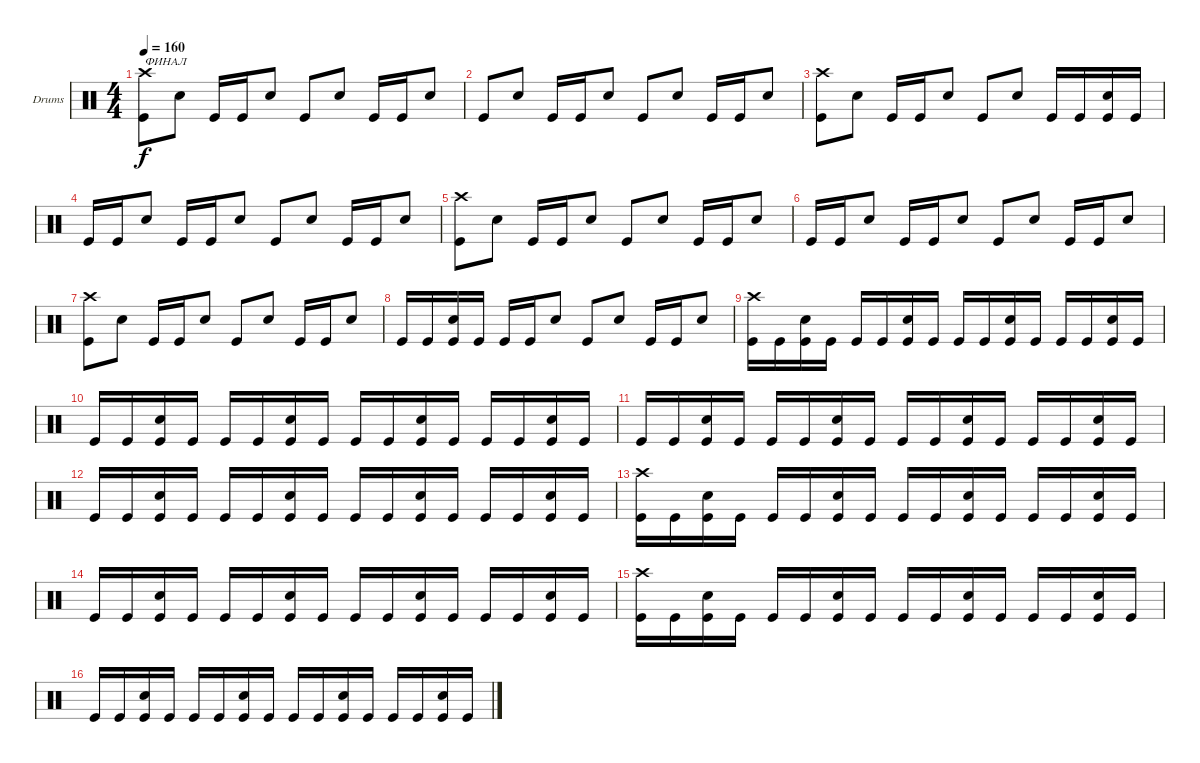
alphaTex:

\defaultSystemsLayout 4
\bracketExtendMode groupsimilarinstruments
\firstSystemTrackNameOrientation horizontal
\otherSystemsTrackNameOrientation horizontal
\track ("Drumkit" "Drums") {instrument percussion}
\staff {score}
\articulation defaults
\ts (4 4)
\tempo 160
\clef neutral
\ks c
("Kick (hit)" "Crash high (hit)").8{txt "ФИНАЛ" dy f} "Snare (hit) 2".8 "Kick (hit)".16 "Kick (hit)".16 "Snare (hit) 2".8 "Kick (hit)".8 "Snare (hit) 2".8 "Kick (hit)".16 "Kick (hit)".16 "Snare (hit) 2".8 |
"Kick (hit)".8 "Snare (hit) 2".8 "Kick (hit)".16 "Kick (hit)".16 "Snare (hit) 2".8 "Kick (hit)".8 "Snare (hit) 2".8 "Kick (hit)".16 "Kick (hit)".16 "Snare (hit) 2".8 |
("Kick (hit)" "Crash high (hit)").8 "Snare (hit) 2".8 "Kick (hit)".16 "Kick (hit)".16 "Snare (hit) 2".8 "Kick (hit)".8 "Snare (hit) 2".8 "Kick (hit)".16 "Kick (hit)".16 ("Snare (hit) 2" "Kick (hit)").16 "Kick (hit)".16 |
"Kick (hit)".16 "Kick (hit)".16 "Snare (hit) 2".8 "Kick (hit)".16 "Kick (hit)".16 "Snare (hit) 2".8 "Kick (hit)".8 "Snare (hit) 2".8 "Kick (hit)".16 "Kick (hit)".16 "Snare (hit) 2".8 |
("Kick (hit)" "Crash high (hit)").8 "Snare (hit) 2".8 "Kick (hit)".16 "Kick (hit)".16 "Snare (hit) 2".8 "Kick (hit)".8 "Snare (hit) 2".8 "Kick (hit)".16 "Kick (hit)".16 "Snare (hit) 2".8 |
"Kick (hit)".16 "Kick (hit)".16 "Snare (hit) 2".8 "Kick (hit)".16 "Kick (hit)".16 "Snare (hit) 2".8 "Kick (hit)".8 "Snare (hit) 2".8 "Kick (hit)".16 "Kick (hit)".16 "Snare (hit) 2".8 |
("Kick (hit)" "Crash high (hit)").8 "Snare (hit) 2".8 "Kick (hit)".16 "Kick (hit)".16 "Snare (hit) 2".8 "Kick (hit)".8 "Snare (hit) 2".8 "Kick (hit)".16 "Kick (hit)".16 "Snare (hit) 2".8 |
"Kick (hit)".16 "Kick (hit)".16 ("Kick (hit)" "Snare (hit) 2").16 "Kick (hit)".16 "Kick (hit)".16 "Kick (hit)".16 "Snare (hit) 2".8 "Kick (hit)".8 "Snare (hit) 2".8 "Kick (hit)".16 "Kick (hit)".16 "Snare (hit) 2".8 |
("Kick (hit)" "Crash high (hit)").16 "Kick (hit)".16 ("Kick (hit)" "Snare (hit) 2").16 "Kick (hit)".16 "Kick (hit)".16 "Kick (hit)".16 ("Kick (hit)" "Snare (hit) 2").16 "Kick (hit)".16 "Kick (hit)".16 "Kick (hit)".16 ("Kick (hit)" "Snare (hit) 2").16 "Kick (hit)".16 "Kick (hit)".16 "Kick (hit)".16 ("Kick (hit)" "Snare (hit) 2").16 "Kick (hit)".16 |
"Kick (hit)".16 "Kick (hit)".16 ("Kick (hit)" "Snare (hit) 2").16 "Kick (hit)".16 "Kick (hit)".16 "Kick (hit)".16 ("Kick (hit)" "Snare (hit) 2").16 "Kick (hit)".16 "Kick (hit)".16 "Kick (hit)".16 ("Kick (hit)" "Snare (hit) 2").16 "Kick (hit)".16 "Kick (hit)".16 "Kick (hit)".16 ("Kick (hit)" "Snare (hit) 2").16 "Kick (hit)".16 |
"Kick (hit)".16 "Kick (hit)".16 ("Kick (hit)" "Snare (hit) 2").16 "Kick (hit)".16 "Kick (hit)".16 "Kick (hit)".16 ("Kick (hit)" "Snare (hit) 2").16 "Kick (hit)".16 "Kick (hit)".16 "Kick (hit)".16 ("Kick (hit)" "Snare (hit) 2").16 "Kick (hit)".16 "Kick (hit)".16 "Kick (hit)".16 ("Kick (hit)" "Snare (hit) 2").16 "Kick (hit)".16 |
"Kick (hit)".16 "Kick (hit)".16 ("Kick (hit)" "Snare (hit) 2").16 "Kick (hit)".16 "Kick (hit)".16 "Kick (hit)".16 ("Kick (hit)" "Snare (hit) 2").16 "Kick (hit)".16 "Kick (hit)".16 "Kick (hit)".16 ("Kick (hit)" "Snare (hit) 2").16 "Kick (hit)".16 "Kick (hit)".16 "Kick (hit)".16 ("Kick (hit)" "Snare (hit) 2").16 "Kick (hit)".16 |
("Kick (hit)" "Crash high (hit)").16 "Kick (hit)".16 ("Kick (hit)" "Snare (hit) 2").16 "Kick (hit)".16 "Kick (hit)".16 "Kick (hit)".16 ("Kick (hit)" "Snare (hit) 2").16 "Kick (hit)".16 "Kick (hit)".16 "Kick (hit)".16 ("Kick (hit)" "Snare (hit) 2").16 "Kick (hit)".16 "Kick (hit)".16 "Kick (hit)".16 ("Kick (hit)" "Snare (hit) 2").16 "Kick (hit)".16 |
"Kick (hit)".16 "Kick (hit)".16 ("Kick (hit)" "Snare (hit) 2").16 "Kick (hit)".16 "Kick (hit)".16 "Kick (hit)".16 ("Kick (hit)" "Snare (hit) 2").16 "Kick (hit)".16 "Kick (hit)".16 "Kick (hit)".16 ("Kick (hit)" "Snare (hit) 2").16 "Kick (hit)".16 "Kick (hit)".16 "Kick (hit)".16 ("Kick (hit)" "Snare (hit) 2").16 "Kick (hit)".16 |
("Kick (hit)" "Crash high (hit)").16 "Kick (hit)".16 ("Kick (hit)" "Snare (hit) 2").16 "Kick (hit)".16 "Kick (hit)".16 "Kick (hit)".16 ("Kick (hit)" "Snare (hit) 2").16 "Kick (hit)".16 "Kick (hit)".16 "Kick (hit)".16 ("Kick (hit)" "Snare (hit) 2").16 "Kick (hit)".16 "Kick (hit)".16 "Kick (hit)".16 ("Kick (hit)" "Snare (hit) 2").16 "Kick (hit)".16 |
"Kick (hit)".16 "Kick (hit)".16 ("Kick (hit)" "Snare (hit) 2").16 "Kick (hit)".16 "Kick (hit)".16 "Kick (hit)".16 ("Kick (hit)" "Snare (hit) 2").16 "Kick (hit)".16 "Kick (hit)".16 "Kick (hit)".16 ("Kick (hit)" "Snare (hit) 2").16 "Kick (hit)".16 "Kick (hit)".16 "Kick (hit)".16 ("Kick (hit)" "Snare (hit) 2").16 "Kick (hit)".16
